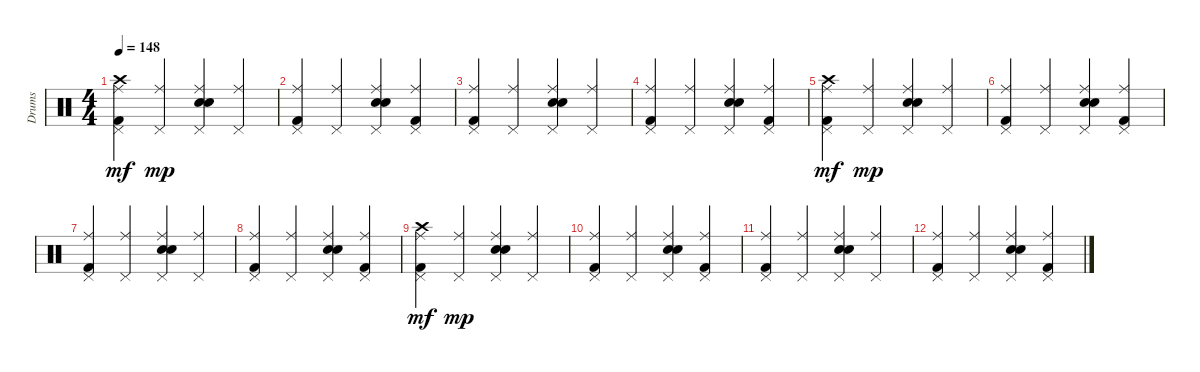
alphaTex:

\track ("Drums" "Drums") {instrument percussion}
\staff {score}
\articulation defaults
\ts (4 4)
\tempo 148
\clef neutral
\ks c
("Pedal Hi-Hat (hit)" "Kick (hit) 2" "Ride (middle)" "Crash high (hit)").4{dy mf} ("Pedal Hi-Hat (hit)" "Ride (middle)").4{dy mp} ("Pedal Hi-Hat (hit)" "Snare (hit) 2" "Electric Snare (hit)" "Ride (middle)").4 ("Pedal Hi-Hat (hit)" "Ride (middle)").4 |
("Pedal Hi-Hat (hit)" "Kick (hit) 2" "Ride (middle)").4 ("Pedal Hi-Hat (hit)" "Ride (middle)").4 ("Pedal Hi-Hat (hit)" "Snare (hit) 2" "Electric Snare (hit)" "Ride (middle)").4 ("Pedal Hi-Hat (hit)" "Kick (hit) 2" "Ride (middle)").4 |
("Pedal Hi-Hat (hit)" "Kick (hit) 2" "Ride (middle)").4 ("Pedal Hi-Hat (hit)" "Ride (middle)").4 ("Pedal Hi-Hat (hit)" "Snare (hit) 2" "Electric Snare (hit)" "Ride (middle)").4 ("Pedal Hi-Hat (hit)" "Ride (middle)").4 |
("Pedal Hi-Hat (hit)" "Kick (hit) 2" "Ride (middle)").4 ("Pedal Hi-Hat (hit)" "Ride (middle)").4 ("Pedal Hi-Hat (hit)" "Snare (hit) 2" "Electric Snare (hit)" "Ride (middle)").4 ("Pedal Hi-Hat (hit)" "Kick (hit) 2" "Ride (middle)").4 |
("Pedal Hi-Hat (hit)" "Kick (hit) 2" "Ride (middle)" "Crash high (hit)").4{dy mf} ("Pedal Hi-Hat (hit)" "Ride (middle)").4{dy mp} ("Pedal Hi-Hat (hit)" "Snare (hit) 2" "Electric Snare (hit)" "Ride (middle)").4 ("Pedal Hi-Hat (hit)" "Ride (middle)").4 |
("Pedal Hi-Hat (hit)" "Kick (hit) 2" "Ride (middle)").4 ("Pedal Hi-Hat (hit)" "Ride (middle)").4 ("Pedal Hi-Hat (hit)" "Snare (hit) 2" "Electric Snare (hit)" "Ride (middle)").4 ("Pedal Hi-Hat (hit)" "Kick (hit) 2" "Ride (middle)").4 |
("Pedal Hi-Hat (hit)" "Kick (hit) 2" "Ride (middle)").4 ("Pedal Hi-Hat (hit)" "Ride (middle)").4 ("Pedal Hi-Hat (hit)" "Snare (hit) 2" "Electric Snare (hit)" "Ride (middle)").4 ("Pedal Hi-Hat (hit)" "Ride (middle)").4 |
("Pedal Hi-Hat (hit)" "Kick (hit) 2" "Ride (middle)").4 ("Pedal Hi-Hat (hit)" "Ride (middle)").4 ("Pedal Hi-Hat (hit)" "Snare (hit) 2" "Electric Snare (hit)" "Ride (middle)").4 ("Pedal Hi-Hat (hit)" "Kick (hit) 2" "Ride (middle)").4 |
("Pedal Hi-Hat (hit)" "Kick (hit) 2" "Ride (middle)" "Crash high (hit)").4{dy mf} ("Pedal Hi-Hat (hit)" "Ride (middle)").4{dy mp} ("Pedal Hi-Hat (hit)" "Snare (hit) 2" "Electric Snare (hit)" "Ride (middle)").4 ("Pedal Hi-Hat (hit)" "Ride (middle)").4 |
("Pedal Hi-Hat (hit)" "Kick (hit) 2" "Ride (middle)").4 ("Pedal Hi-Hat (hit)" "Ride (middle)").4 ("Pedal Hi-Hat (hit)" "Snare (hit) 2" "Electric Snare (hit)" "Ride (middle)").4 ("Pedal Hi-Hat (hit)" "Kick (hit) 2" "Ride (middle)").4 |
("Pedal Hi-Hat (hit)" "Kick (hit) 2" "Ride (middle)").4 ("Pedal Hi-Hat (hit)" "Ride (middle)").4 ("Pedal Hi-Hat (hit)" "Snare (hit) 2" "Electric Snare (hit)" "Ride (middle)").4 ("Pedal Hi-Hat (hit)" "Ride (middle)").4 |
("Pedal Hi-Hat (hit)" "Kick (hit) 2" "Ride (middle)").4 ("Pedal Hi-Hat (hit)" "Ride (middle)").4 ("Pedal Hi-Hat (hit)" "Snare (hit) 2" "Electric Snare (hit)" "Ride (middle)").4 ("Pedal Hi-Hat (hit)" "Kick (hit) 2" "Ride (middle)").4
